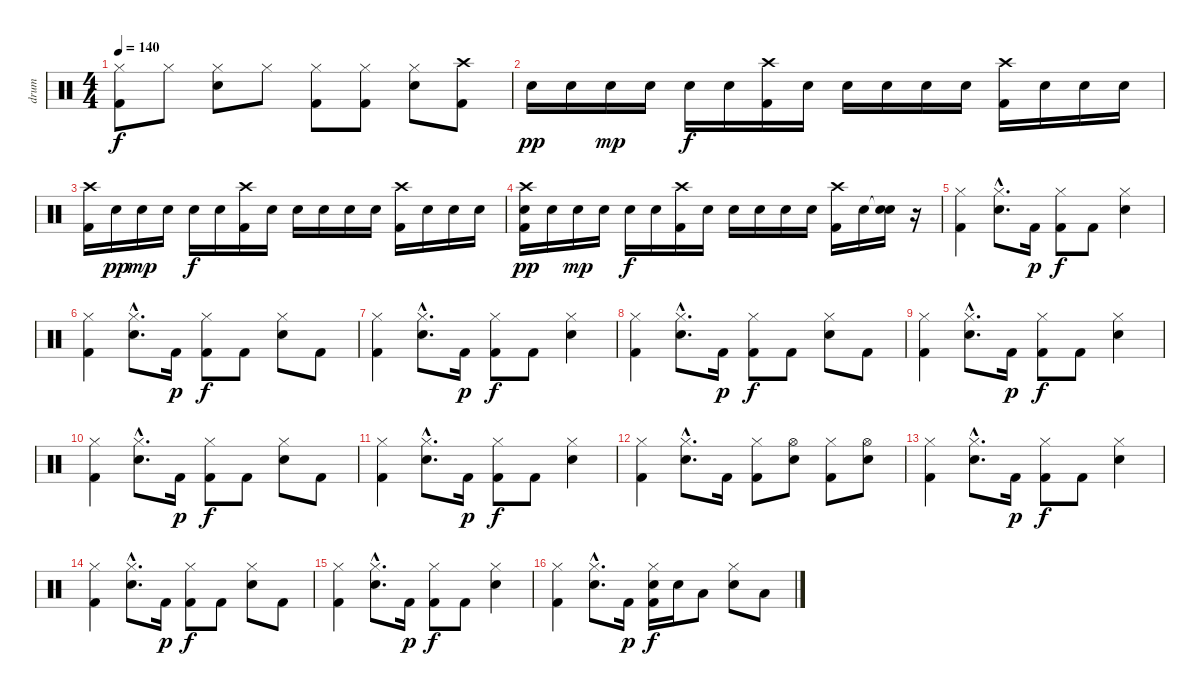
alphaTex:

\track ("drum" "drum") {instrument percussion}
\staff {score}
\articulation defaults
\ts (4 4)
\tempo 140
\clef neutral
\ks c
("Hi-Hat (closed)" "Kick (hit) 2").8{dy f} "Hi-Hat (closed)".8 ("Hi-Hat (closed)" "Snare (hit) 2").8 "Hi-Hat (closed)".8 ("Hi-Hat (closed)" "Kick (hit) 2").8 ("Hi-Hat (closed)" "Kick (hit) 2").8 ("Hi-Hat (closed)" "Snare (hit) 2").8 ("Crash high (hit)" "Kick (hit) 2").8 |
"Snare (hit) 2".16{dy pp} "Snare (hit) 2".16 "Snare (hit) 2".16{dy mp} "Snare (hit) 2".16 "Snare (hit) 2".16{dy f} "Snare (hit) 2".16 ("Crash high (hit)" "Kick (hit) 2").16 "Snare (hit) 2".16 "Snare (hit) 2".16 "Snare (hit) 2".16 "Snare (hit) 2".16 "Snare (hit) 2".16 ("Crash high (hit)" "Kick (hit) 2").16 "Snare (hit) 2".16 "Snare (hit) 2".16 "Snare (hit) 2".16 |
("Crash high (hit)" "Kick (hit) 2").16 "Snare (hit) 2".16{dy pp} "Snare (hit) 2".16{dy mp} "Snare (hit) 2".16 "Snare (hit) 2".16{dy f} "Snare (hit) 2".16 ("Crash high (hit)" "Kick (hit) 2").16 "Snare (hit) 2".16 "Snare (hit) 2".16 "Snare (hit) 2".16 "Snare (hit) 2".16 "Snare (hit) 2".16 ("Crash high (hit)" "Kick (hit) 2").16 "Snare (hit) 2".16 "Snare (hit) 2".16 "Snare (hit) 2".16 |
("Crash high (hit)" "Snare (hit) 2" "Kick (hit) 2").16{dy pp} "Snare (hit) 2".16 "Snare (hit) 2".16{dy mp} "Snare (hit) 2".16 "Snare (hit) 2".16{dy f} "Snare (hit) 2".16 ("Crash high (hit)" "Kick (hit) 2").16 "Snare (hit) 2".16 "Snare (hit) 2".16 "Snare (hit) 2".16 "Snare (hit) 2".16 "Snare (hit) 2".16 ("Crash high (hit)" "Kick (hit) 2").16 "Snare (hit) 2".16 ("Snare (hit)"{t} "Snare (hit) 2").16 r.16 |
("Hi-Hat (closed)" "Kick (hit) 2").4 ("Hi-Hat (closed)"{hac} "Snare (hit) 2"{hac}).8{d} "Kick (hit) 2".16{dy p} ("Hi-Hat (closed)" "Kick (hit) 2").8{dy f} "Kick (hit) 2".8 ("Hi-Hat (closed)" "Snare (hit) 2").4 |
("Hi-Hat (closed)" "Kick (hit) 2").4 ("Hi-Hat (closed)"{hac} "Snare (hit) 2"{hac}).8{d} "Kick (hit) 2".16{dy p} ("Hi-Hat (closed)" "Kick (hit) 2").8{dy f} "Kick (hit) 2".8 ("Hi-Hat (closed)" "Snare (hit) 2").8 "Kick (hit) 2".8 |
("Hi-Hat (closed)" "Kick (hit) 2").4 ("Hi-Hat (closed)"{hac} "Snare (hit) 2"{hac}).8{d} "Kick (hit) 2".16{dy p} ("Hi-Hat (closed)" "Kick (hit) 2").8{dy f} "Kick (hit) 2".8 ("Hi-Hat (closed)" "Snare (hit) 2").4 |
("Hi-Hat (closed)" "Kick (hit) 2").4 ("Hi-Hat (closed)"{hac} "Snare (hit) 2"{hac}).8{d} "Kick (hit) 2".16{dy p} ("Hi-Hat (closed)" "Kick (hit) 2").8{dy f} "Kick (hit) 2".8 ("Hi-Hat (closed)" "Snare (hit) 2").8 "Kick (hit) 2".8 |
("Hi-Hat (closed)" "Kick (hit) 2").4 ("Hi-Hat (closed)"{hac} "Snare (hit) 2"{hac}).8{d} "Kick (hit) 2".16{dy p} ("Hi-Hat (closed)" "Kick (hit) 2").8{dy f} "Kick (hit) 2".8 ("Hi-Hat (closed)" "Snare (hit) 2").4 |
("Hi-Hat (closed)" "Kick (hit) 2").4 ("Hi-Hat (closed)"{hac} "Snare (hit) 2"{hac}).8{d} "Kick (hit) 2".16{dy p} ("Hi-Hat (closed)" "Kick (hit) 2").8{dy f} "Kick (hit) 2".8 ("Hi-Hat (closed)" "Snare (hit) 2").8 "Kick (hit) 2".8 |
("Hi-Hat (closed)" "Kick (hit) 2").4 ("Hi-Hat (closed)"{hac} "Snare (hit) 2"{hac}).8{d} "Kick (hit) 2".16{dy p} ("Hi-Hat (closed)" "Kick (hit) 2").8{dy f} "Kick (hit) 2".8 ("Hi-Hat (closed)" "Snare (hit) 2").4 |
("Hi-Hat (closed)" "Kick (hit) 2").4 ("Hi-Hat (closed)"{hac} "Snare (hit) 2"{hac}).8{d} "Kick (hit) 2".16 ("Hi-Hat (closed)" "Kick (hit) 2").8 ("Hi-Hat (open)" "Snare (hit) 2").8 ("Hi-Hat (closed)" "Kick (hit) 2").8 ("Hi-Hat (open)" "Snare (hit) 2").8 |
("Hi-Hat (closed)" "Kick (hit) 2").4 ("Hi-Hat (closed)"{hac} "Snare (hit) 2"{hac}).8{d} "Kick (hit) 2".16{dy p} ("Hi-Hat (closed)" "Kick (hit) 2").8{dy f} "Kick (hit) 2".8 ("Hi-Hat (closed)" "Snare (hit) 2").4 |
("Hi-Hat (closed)" "Kick (hit) 2").4 ("Hi-Hat (closed)"{hac} "Snare (hit) 2"{hac}).8{d} "Kick (hit) 2".16{dy p} ("Hi-Hat (closed)" "Kick (hit) 2").8{dy f} "Kick (hit) 2".8 ("Hi-Hat (closed)" "Snare (hit) 2").8 "Kick (hit) 2".8 |
("Hi-Hat (closed)" "Kick (hit) 2").4 ("Hi-Hat (closed)"{hac} "Snare (hit) 2"{hac}).8{d} "Kick (hit) 2".16{dy p} ("Hi-Hat (closed)" "Kick (hit) 2").8{dy f} "Kick (hit) 2".8 ("Hi-Hat (closed)" "Snare (hit) 2").4 |
("Hi-Hat (closed)" "Kick (hit) 2").4 ("Hi-Hat (closed)"{hac} "Snare (hit) 2"{hac}).8{d} "Kick (hit) 2".16{dy p} ("Hi-Hat (closed)" "Snare (hit) 2" "Kick (hit) 2").16{dy f} "Snare (hit) 2".16 "Low Tom (hit)".8 ("Hi-Hat (closed)" "Snare (hit) 2").8 "Low Tom (hit)".8
